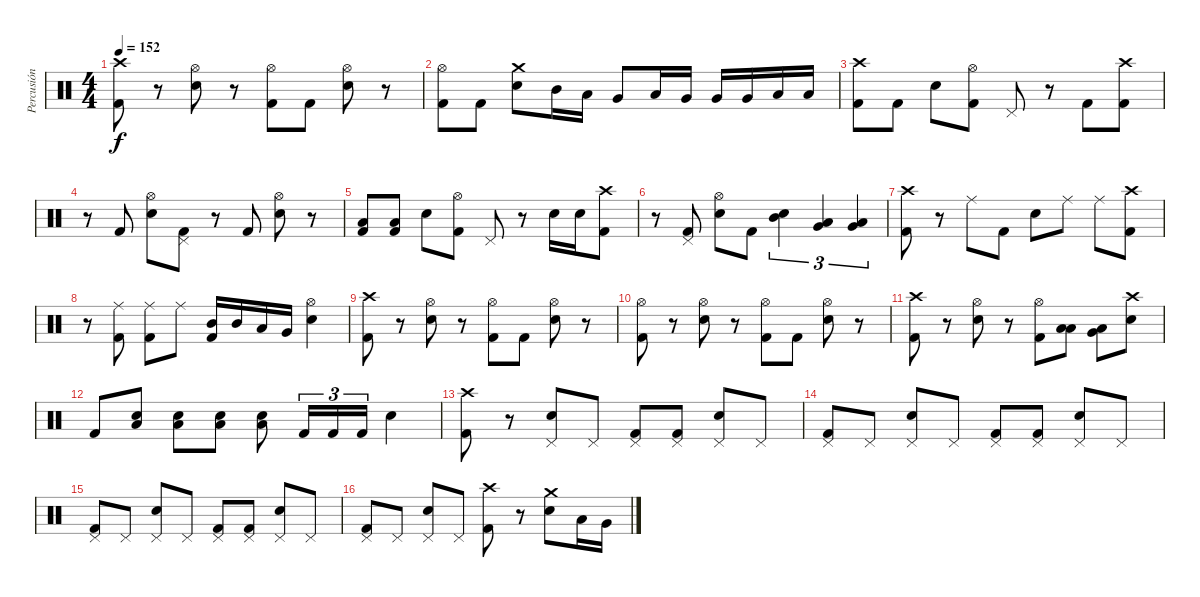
\track ("Percusión" "Percusión") {instrument percussion}
\staff {score}
\articulation defaults
\ts (4 4)
\tempo 152
\clef neutral
\ks c
("Kick (hit) 2" "Crash high (hit)").8{dy f} r.8 ("Snare (hit) 2" "Hi-Hat (open)").8 r.8 ("Kick (hit) 2" "Hi-Hat (open)").8 "Kick (hit) 2".8 ("Snare (hit) 2" "Hi-Hat (open)").8 r.8 |
("Kick (hit) 2" "Hi-Hat (open)").8 "Kick (hit) 2".8 ("Snare (hit) 2" "Crash medium (hit)").8 "Mid Tom (hit)".16 "Low Tom (hit)".16 "Very Low Tom (hit)".8 "Low Tom (hit)".16 "Very Low Tom (hit)".16 "Very Low Tom (hit)".16 "Very Low Tom (hit)".16 "Low Floor Tom (hit)".16 "Low Floor Tom (hit)".16 |
("Kick (hit) 2" "Crash high (hit)").8 "Kick (hit) 2".8 "Snare (hit) 2".8 ("Kick (hit) 2" "Hi-Hat (open)").8 "Pedal Hi-Hat (hit)".8 r.8 "Kick (hit) 2".8 ("Kick (hit) 2" "Crash high (hit)").8 |
r.8 "Kick (hit) 2".8 ("Snare (hit) 2" "Hi-Hat (open)").8 ("Kick (hit) 2" "Pedal Hi-Hat (hit)").8 r.8 "Kick (hit) 2".8 ("Snare (hit) 2" "Hi-Hat (open)").8 r.8 |
("Kick (hit) 2" "Low Floor Tom (hit)").8 ("Kick (hit) 2" "Low Floor Tom (hit)").8 "Snare (hit) 2".8 ("Kick (hit) 2" "Hi-Hat (open)").8 "Pedal Hi-Hat (hit)".8 r.8 "Snare (hit) 2".16 "Snare (hit) 2".16 ("Kick (hit) 2" "Crash high (hit)").8 |
r.8 ("Kick (hit) 2" "Pedal Hi-Hat (hit)").8 ("Snare (hit) 2" "Hi-Hat (open)").8 "Kick (hit) 2".8 ("Snare (hit) 2" "Mid Tom (hit)").4{tu (3 2)} ("Low Tom (hit)" "Very Low Tom (hit)").4{tu (3 2)} ("Very Low Tom (hit)" "Low Floor Tom (hit)").4{tu (3 2)} |
("Kick (hit) 2" "Crash high (hit)").8 r.8 "Ride (middle)".8 "Kick (hit) 2".8 "Snare (hit) 2".8 "Ride (middle)".8 "Ride (middle)".8 ("Kick (hit) 2" "Crash high (hit)").8 |
r.8 ("Kick (hit) 2" "Ride (middle)").8 ("Kick (hit) 2" "Ride (middle)").8 "Ride (middle)".8 ("Kick (hit) 2" "Mid Tom (hit)").16 "Mid Tom (hit)".16 "Low Tom (hit)".16 "Very Low Tom (hit)".16 ("Snare (hit) 2" "Hi-Hat (open)").4 |
("Kick (hit) 2" "Crash high (hit)").8 r.8 ("Snare (hit) 2" "Hi-Hat (open)").8 r.8 ("Kick (hit) 2" "Hi-Hat (open)").8 "Kick (hit) 2".8 ("Snare (hit) 2" "Hi-Hat (open)").8 r.8 |
("Kick (hit) 2" "Hi-Hat (open)").8 r.8 ("Snare (hit) 2" "Hi-Hat (open)").8 r.8 ("Kick (hit) 2" "Hi-Hat (open)").8 "Kick (hit) 2".8 ("Snare (hit) 2" "Hi-Hat (open)").8 r.8 |
("Kick (hit) 2" "Crash high (hit)").8 r.8 ("Snare (hit) 2" "Hi-Hat (open)").8 r.8 ("Kick (hit) 2" "Hi-Hat (open)").8 ("Low Tom (hit)" "Low Floor Tom (hit)").8 ("Very Low Tom (hit)" "Low Floor Tom (hit)").8 ("Snare (hit) 2" "Crash high (hit)").8 |
"Kick (hit) 2".8 ("Snare (hit) 2" "Low Floor Tom (hit)").8 ("Snare (hit) 2" "Low Floor Tom (hit)").8 ("Snare (hit) 2" "Low Floor Tom (hit)").8 ("Snare (hit) 2" "Low Floor Tom (hit)").8 "Kick (hit) 2".16{tu (3 2)} "Kick (hit) 2".16{tu (3 2)} "Kick (hit) 2".16{tu (3 2)} "Snare (hit) 2".4 |
("Kick (hit) 2" "Crash high (hit)").8 r.8 ("Snare (hit) 2" "Pedal Hi-Hat (hit)").8 "Pedal Hi-Hat (hit)".8 ("Kick (hit) 2" "Pedal Hi-Hat (hit)").8 ("Kick (hit) 2" "Pedal Hi-Hat (hit)").8 ("Snare (hit) 2" "Pedal Hi-Hat (hit)").8 "Pedal Hi-Hat (hit)".8 |
("Kick (hit) 2" "Pedal Hi-Hat (hit)").8 "Pedal Hi-Hat (hit)".8 ("Snare (hit) 2" "Pedal Hi-Hat (hit)").8 "Pedal Hi-Hat (hit)".8 ("Kick (hit) 2" "Pedal Hi-Hat (hit)").8 ("Kick (hit) 2" "Pedal Hi-Hat (hit)").8 ("Snare (hit) 2" "Pedal Hi-Hat (hit)").8 "Pedal Hi-Hat (hit)".8 |
("Kick (hit) 2" "Pedal Hi-Hat (hit)").8 "Pedal Hi-Hat (hit)".8 ("Snare (hit) 2" "Pedal Hi-Hat (hit)").8 "Pedal Hi-Hat (hit)".8 ("Kick (hit) 2" "Pedal Hi-Hat (hit)").8 ("Kick (hit) 2" "Pedal Hi-Hat (hit)").8 ("Snare (hit) 2" "Pedal Hi-Hat (hit)").8 "Pedal Hi-Hat (hit)".8 |
("Kick (hit) 2" "Pedal Hi-Hat (hit)").8 "Pedal Hi-Hat (hit)".8 ("Snare (hit) 2" "Pedal Hi-Hat (hit)").8 "Pedal Hi-Hat (hit)".8 ("Kick (hit) 2" "Crash high (hit)").8 r.8 ("Snare (hit) 2" "Crash medium (hit)").8 "Low Tom (hit)".16 "Very Low Tom (hit)".16
